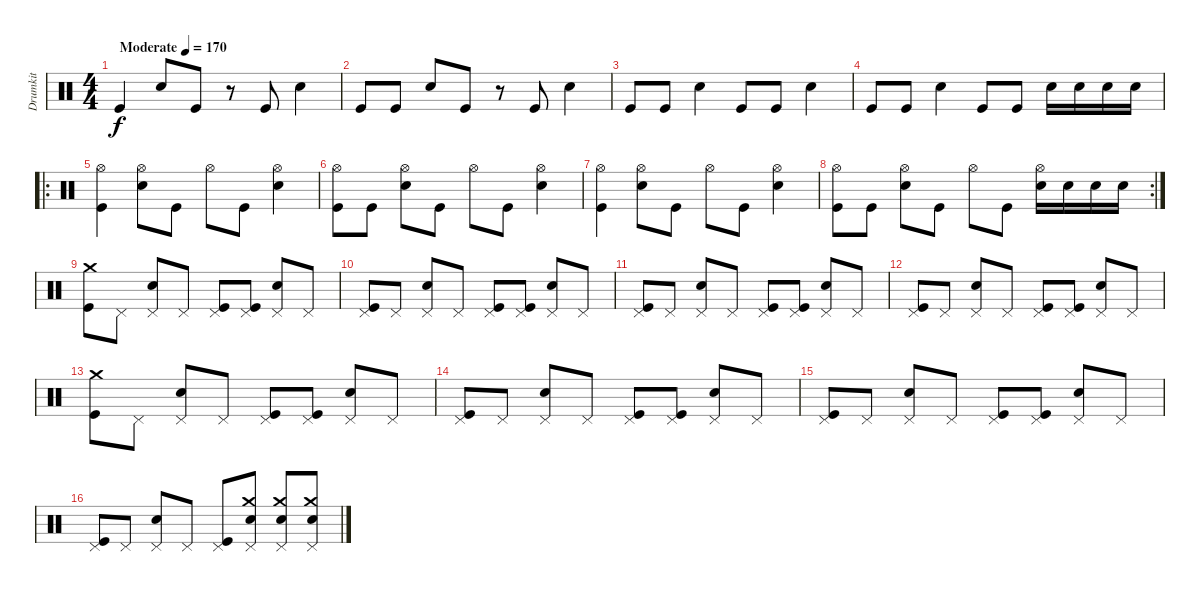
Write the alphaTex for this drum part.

\track ("Drumkit" "Drumkit") {instrument percussion}
\staff {score}
\articulation defaults
\ts (4 4)
\tempo (170 "Moderate")
\clef neutral
\ks c "Kick (hit)".4{dy f} "Snare (hit) 2".8 "Kick (hit)".8
r.8 "Kick (hit)".8 "Snare (hit) 2".4 |
"Kick (hit)".8 "Kick (hit)".8 "Snare (hit) 2".8 "Kick (hit)".8 r.8 "Kick (hit)".8 "Snare (hit) 2".4 |
"Kick (hit)".8 "Kick (hit)".8 "Snare (hit) 2".4 "Kick (hit)".8 "Kick (hit)".8 "Snare (hit) 2".4 |
"Kick (hit)".8 "Kick (hit)".8 "Snare (hit) 2".4 "Kick (hit)".8 "Kick (hit)".8 "Snare (hit) 2".16 "Snare (hit) 2".16 "Snare (hit) 2".16 "Snare (hit) 2".16 |
\ro
("Kick (hit)" "Hi-Hat (open)").4 ("Snare (hit) 2" "Hi-Hat (open)").8 "Kick (hit)".8 "Hi-Hat (open)".8 "Kick (hit)".8 ("Snare (hit) 2" "Hi-Hat (open)").4 |
("Kick (hit)" "Hi-Hat (open)").8 "Kick (hit)".8 ("Snare (hit) 2" "Hi-Hat (open)").8 "Kick (hit)".8 "Hi-Hat (open)".8 "Kick (hit)".8 ("Snare (hit) 2" "Hi-Hat (open)").4 |
("Kick (hit)" "Hi-Hat (open)").4 ("Snare (hit) 2" "Hi-Hat (open)").8 "Kick (hit)".8 "Hi-Hat (open)".8 "Kick (hit)".8 ("Snare (hit) 2" "Hi-Hat (open)").4 |
\rc 2
("Kick (hit)" "Hi-Hat (open)").8 "Kick (hit)".8 ("Snare (hit) 2" "Hi-Hat (open)").8 "Kick (hit)".8 "Hi-Hat (open)".8 "Kick (hit)".8 ("Snare (hit) 2" "Hi-Hat (open)").16 "Snare (hit) 2".16 "Snare (hit) 2".16 "Snare (hit) 2".16 |
("Crash medium (hit)" "Kick (hit)").8 "Pedal Hi-Hat (hit)".8 ("Pedal Hi-Hat (hit)" "Snare (hit) 2").8 "Pedal Hi-Hat (hit)".8 ("Pedal Hi-Hat (hit)" "Kick (hit)").8 ("Pedal Hi-Hat (hit)" "Kick (hit)").8 ("Pedal Hi-Hat (hit)" "Snare (hit) 2").8 "Pedal Hi-Hat (hit)".8 |
("Pedal Hi-Hat (hit)" "Kick (hit)").8 "Pedal Hi-Hat (hit)".8 ("Pedal Hi-Hat (hit)" "Snare (hit) 2").8 "Pedal Hi-Hat (hit)".8 ("Pedal Hi-Hat (hit)" "Kick (hit)").8 ("Pedal Hi-Hat (hit)" "Kick (hit)").8 ("Pedal Hi-Hat (hit)" "Snare (hit) 2").8 "Pedal Hi-Hat (hit)".8 |
("Pedal Hi-Hat (hit)" "Kick (hit)").8 "Pedal Hi-Hat (hit)".8 ("Pedal Hi-Hat (hit)" "Snare (hit) 2").8 "Pedal Hi-Hat (hit)".8 ("Pedal Hi-Hat (hit)" "Kick (hit)").8 ("Pedal Hi-Hat (hit)" "Kick (hit)").8 ("Pedal Hi-Hat (hit)" "Snare (hit) 2").8 "Pedal Hi-Hat (hit)".8 |
("Pedal Hi-Hat (hit)" "Kick (hit)").8 "Pedal Hi-Hat (hit)".8 ("Pedal Hi-Hat (hit)" "Snare (hit) 2").8 "Pedal Hi-Hat (hit)".8 ("Pedal Hi-Hat (hit)" "Kick (hit)").8 ("Pedal Hi-Hat (hit)" "Kick (hit)").8 ("Pedal Hi-Hat (hit)" "Snare (hit) 2").8 "Pedal Hi-Hat (hit)".8 |
("Crash medium (hit)" "Kick (hit)").8 "Pedal Hi-Hat (hit)".8 ("Pedal Hi-Hat (hit)" "Snare (hit) 2").8 "Pedal Hi-Hat (hit)".8 ("Pedal Hi-Hat (hit)" "Kick (hit)").8 ("Pedal Hi-Hat (hit)" "Kick (hit)").8 ("Pedal Hi-Hat (hit)" "Snare (hit) 2").8 "Pedal Hi-Hat (hit)".8 |
("Pedal Hi-Hat (hit)" "Kick (hit)").8 "Pedal Hi-Hat (hit)".8 ("Pedal Hi-Hat (hit)" "Snare (hit) 2").8 "Pedal Hi-Hat (hit)".8 ("Pedal Hi-Hat (hit)" "Kick (hit)").8 ("Pedal Hi-Hat (hit)" "Kick (hit)").8 ("Pedal Hi-Hat (hit)" "Snare (hit) 2").8 "Pedal Hi-Hat (hit)".8 |
("Pedal Hi-Hat (hit)" "Kick (hit)").8 "Pedal Hi-Hat (hit)".8 ("Pedal Hi-Hat (hit)" "Snare (hit) 2").8 "Pedal Hi-Hat (hit)".8 ("Pedal Hi-Hat (hit)" "Kick (hit)").8 ("Pedal Hi-Hat (hit)" "Kick (hit)").8 ("Pedal Hi-Hat (hit)" "Snare (hit) 2").8 "Pedal Hi-Hat (hit)".8 |
("Pedal Hi-Hat (hit)" "Kick (hit)").8 "Pedal Hi-Hat (hit)".8 ("Pedal Hi-Hat (hit)" "Snare (hit) 2").8 "Pedal Hi-Hat (hit)".8 ("Pedal Hi-Hat (hit)" "Kick (hit)").8 ("Pedal Hi-Hat (hit)" "Crash medium (hit)" "Snare (hit) 2").8 ("Pedal Hi-Hat (hit)" "Crash medium (hit)" "Snare (hit) 2").8 ("Pedal Hi-Hat (hit)" "Crash medium (hit)" "Snare (hit) 2").8
